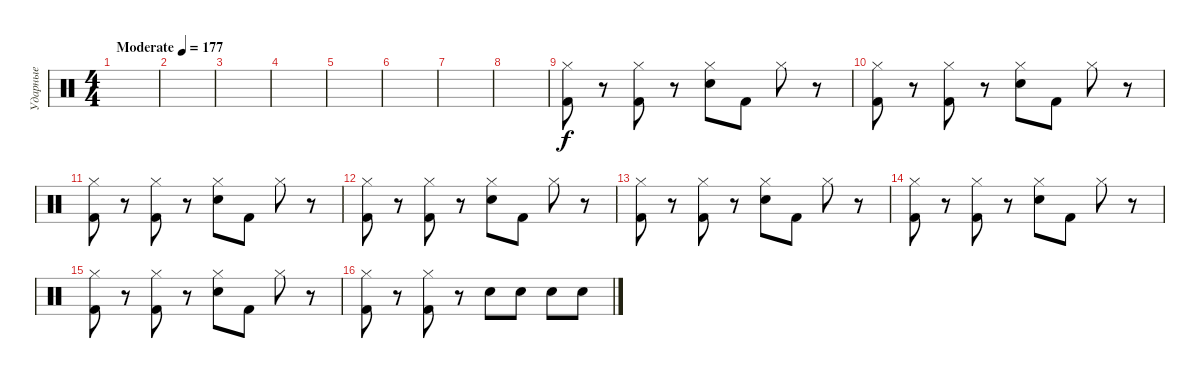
\track ("Ударные" "Ударные") {instrument percussion}
\staff {score}
\articulation defaults
\ts (4 4)
\tempo (177 "Moderate")
\clef neutral
\ks c
|
|
|
|
|
|
|
|
("Kick (hit) 2" "Hi-Hat (closed)").8 r.8 ("Kick (hit) 2" "Hi-Hat (closed)").8 r.8 ("Electric Snare (hit)" "Hi-Hat (closed)").8 "Kick (hit) 2".8 "Hi-Hat (closed)".8 r.8 |
("Kick (hit) 2" "Hi-Hat (closed)").8 r.8 ("Kick (hit) 2" "Hi-Hat (closed)").8 r.8 ("Electric Snare (hit)" "Hi-Hat (closed)").8 "Kick (hit) 2".8 "Hi-Hat (closed)".8 r.8 |
("Kick (hit) 2" "Hi-Hat (closed)").8 r.8 ("Kick (hit) 2" "Hi-Hat (closed)").8 r.8 ("Electric Snare (hit)" "Hi-Hat (closed)").8 "Kick (hit) 2".8 "Hi-Hat (closed)".8 r.8 |
("Kick (hit) 2" "Hi-Hat (closed)").8 r.8 ("Kick (hit) 2" "Hi-Hat (closed)").8 r.8 ("Electric Snare (hit)" "Hi-Hat (closed)").8 "Kick (hit) 2".8 "Hi-Hat (closed)".8 r.8 |
("Kick (hit) 2" "Hi-Hat (closed)").8 r.8 ("Kick (hit) 2" "Hi-Hat (closed)").8 r.8 ("Electric Snare (hit)" "Hi-Hat (closed)").8 "Kick (hit) 2".8 "Hi-Hat (closed)".8 r.8 |
("Kick (hit) 2" "Hi-Hat (closed)").8 r.8 ("Kick (hit) 2" "Hi-Hat (closed)").8 r.8 ("Electric Snare (hit)" "Hi-Hat (closed)").8 "Kick (hit) 2".8 "Hi-Hat (closed)".8 r.8 |
("Kick (hit) 2" "Hi-Hat (closed)").8 r.8 ("Kick (hit) 2" "Hi-Hat (closed)").8 r.8 ("Electric Snare (hit)" "Hi-Hat (closed)").8 "Kick (hit) 2".8 "Hi-Hat (closed)".8 r.8 |
("Kick (hit) 2" "Hi-Hat (closed)").8 r.8 ("Kick (hit) 2" "Hi-Hat (closed)").8 r.8 "Electric Snare (hit)".8 "Electric Snare (hit)".8 "Electric Snare (hit)".8 "Electric Snare (hit)".8
